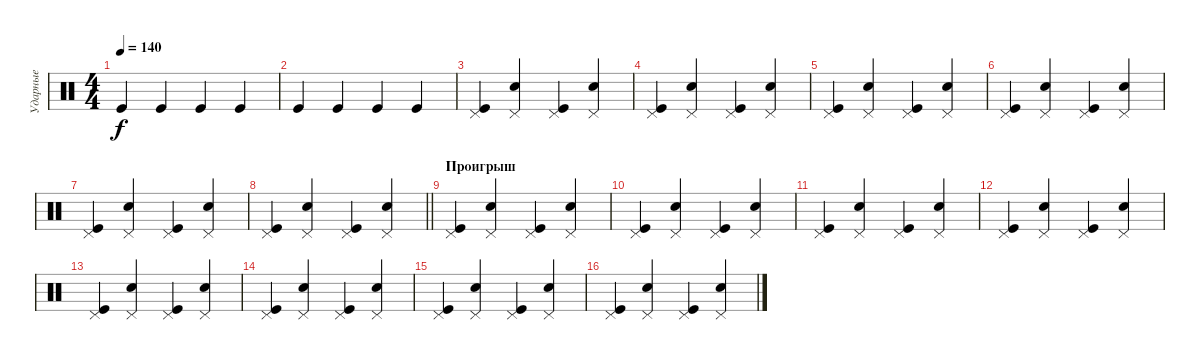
\track ("Ударные" "Ударные") {instrument percussion}
\staff {score}
\articulation defaults
\ts (4 4)
\tempo 140
\clef neutral
\ks c "Kick (hit)".4{dy f} "Kick (hit)".4 "Kick (hit)".4 "Kick (hit)".4
|
"Kick (hit)".4 "Kick (hit)".4 "Kick (hit)".4 "Kick (hit)".4 |
("Kick (hit)" "Pedal Hi-Hat (hit)").4 ("Electric Snare (hit)" "Pedal Hi-Hat (hit)").4 ("Kick (hit)" "Pedal Hi-Hat (hit)").4 ("Electric Snare (hit)" "Pedal Hi-Hat (hit)").4 |
("Kick (hit)" "Pedal Hi-Hat (hit)").4 ("Electric Snare (hit)" "Pedal Hi-Hat (hit)").4 ("Kick (hit)" "Pedal Hi-Hat (hit)").4 ("Electric Snare (hit)" "Pedal Hi-Hat (hit)").4 |
("Kick (hit)" "Pedal Hi-Hat (hit)").4 ("Electric Snare (hit)" "Pedal Hi-Hat (hit)").4 ("Kick (hit)" "Pedal Hi-Hat (hit)").4 ("Electric Snare (hit)" "Pedal Hi-Hat (hit)").4 |
("Kick (hit)" "Pedal Hi-Hat (hit)").4 ("Electric Snare (hit)" "Pedal Hi-Hat (hit)").4 ("Kick (hit)" "Pedal Hi-Hat (hit)").4 ("Electric Snare (hit)" "Pedal Hi-Hat (hit)").4 |
("Kick (hit)" "Pedal Hi-Hat (hit)").4 ("Electric Snare (hit)" "Pedal Hi-Hat (hit)").4 ("Kick (hit)" "Pedal Hi-Hat (hit)").4 ("Electric Snare (hit)" "Pedal Hi-Hat (hit)").4 |
\barLineRight lightlight
("Kick (hit)" "Pedal Hi-Hat (hit)").4 ("Electric Snare (hit)" "Pedal Hi-Hat (hit)").4 ("Kick (hit)" "Pedal Hi-Hat (hit)").4 ("Electric Snare (hit)" "Pedal Hi-Hat (hit)").4 |
\section ("" "Проигрыш")
("Kick (hit)" "Pedal Hi-Hat (hit)").4 ("Electric Snare (hit)" "Pedal Hi-Hat (hit)").4 ("Kick (hit)" "Pedal Hi-Hat (hit)").4 ("Electric Snare (hit)" "Pedal Hi-Hat (hit)").4 |
("Kick (hit)" "Pedal Hi-Hat (hit)").4 ("Electric Snare (hit)" "Pedal Hi-Hat (hit)").4 ("Kick (hit)" "Pedal Hi-Hat (hit)").4 ("Electric Snare (hit)" "Pedal Hi-Hat (hit)").4 |
("Kick (hit)" "Pedal Hi-Hat (hit)").4 ("Electric Snare (hit)" "Pedal Hi-Hat (hit)").4 ("Kick (hit)" "Pedal Hi-Hat (hit)").4 ("Electric Snare (hit)" "Pedal Hi-Hat (hit)").4 |
("Kick (hit)" "Pedal Hi-Hat (hit)").4 ("Electric Snare (hit)" "Pedal Hi-Hat (hit)").4 ("Kick (hit)" "Pedal Hi-Hat (hit)").4 ("Electric Snare (hit)" "Pedal Hi-Hat (hit)").4 |
("Kick (hit)" "Pedal Hi-Hat (hit)").4 ("Electric Snare (hit)" "Pedal Hi-Hat (hit)").4 ("Kick (hit)" "Pedal Hi-Hat (hit)").4 ("Electric Snare (hit)" "Pedal Hi-Hat (hit)").4 |
("Kick (hit)" "Pedal Hi-Hat (hit)").4 ("Electric Snare (hit)" "Pedal Hi-Hat (hit)").4 ("Kick (hit)" "Pedal Hi-Hat (hit)").4 ("Electric Snare (hit)" "Pedal Hi-Hat (hit)").4 |
("Kick (hit)" "Pedal Hi-Hat (hit)").4 ("Electric Snare (hit)" "Pedal Hi-Hat (hit)").4 ("Kick (hit)" "Pedal Hi-Hat (hit)").4 ("Electric Snare (hit)" "Pedal Hi-Hat (hit)").4 |
("Kick (hit)" "Pedal Hi-Hat (hit)").4 ("Electric Snare (hit)" "Pedal Hi-Hat (hit)").4 ("Kick (hit)" "Pedal Hi-Hat (hit)").4 ("Electric Snare (hit)" "Pedal Hi-Hat (hit)").4
